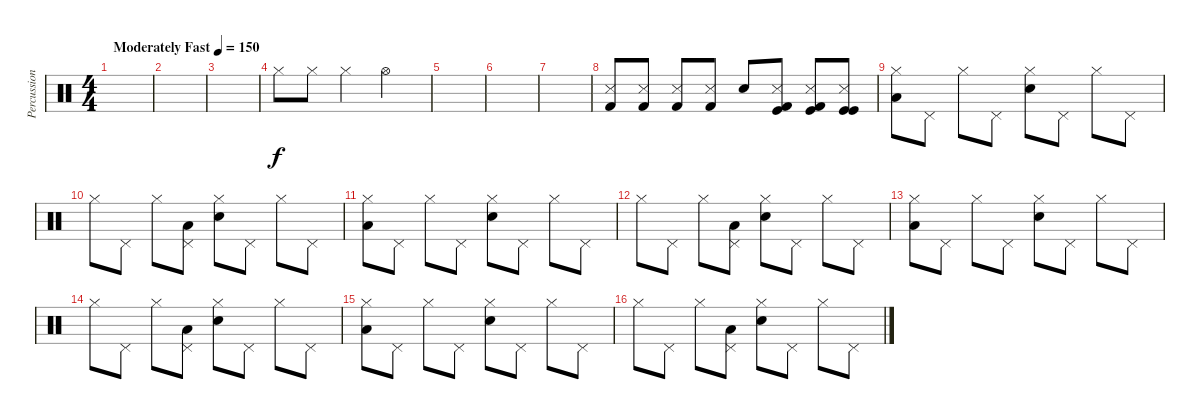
\track ("Percussion" "Percussion") {instrument percussion}
\staff {score}
\articulation defaults
\ts (4 4)
\tempo (150 "Moderately Fast")
\clef neutral
\ks c
|
|
|
"Hi-Hat (closed)".8 "Hi-Hat (closed)".8 "Hi-Hat (closed)".4 "Hi-Hat (open)".2 |
|
|
|
("Snare (side stick) 3" "Kick (hit) 2").8 ("Snare (side stick) 3" "Kick (hit) 2").8 ("Snare (side stick) 3" "Kick (hit) 2").8 ("Snare (side stick) 3" "Kick (hit) 2").8 "Electric Snare (hit)".8 ("Snare (side stick) 3" "Kick (hit) 2" "Kick (hit)").8 ("Snare (side stick) 3" "Kick (hit) 2" "Kick (hit)").8 ("Snare (side stick) 3" "Kick (hit)" "Kick (hit)").8 |
("Hi-Hat (closed)" "Low Floor Tom (hit)").8 "Pedal Hi-Hat (hit)".8 "Hi-Hat (closed)".8 "Pedal Hi-Hat (hit)".8 ("Hi-Hat (closed)" "Electric Snare (hit)").8 "Pedal Hi-Hat (hit)".8 "Hi-Hat (closed)".8 "Pedal Hi-Hat (hit)".8 |
"Hi-Hat (closed)".8 "Pedal Hi-Hat (hit)".8 "Hi-Hat (closed)".8 ("Pedal Hi-Hat (hit)" "Low Floor Tom (hit)").8 ("Hi-Hat (closed)" "Electric Snare (hit)").8 "Pedal Hi-Hat (hit)".8 "Hi-Hat (closed)".8 "Pedal Hi-Hat (hit)".8 |
("Hi-Hat (closed)" "Low Floor Tom (hit)").8 "Pedal Hi-Hat (hit)".8 "Hi-Hat (closed)".8 "Pedal Hi-Hat (hit)".8 ("Hi-Hat (closed)" "Electric Snare (hit)").8 "Pedal Hi-Hat (hit)".8 "Hi-Hat (closed)".8 "Pedal Hi-Hat (hit)".8 |
"Hi-Hat (closed)".8 "Pedal Hi-Hat (hit)".8 "Hi-Hat (closed)".8 ("Pedal Hi-Hat (hit)" "Low Floor Tom (hit)").8 ("Hi-Hat (closed)" "Electric Snare (hit)").8 "Pedal Hi-Hat (hit)".8 "Hi-Hat (closed)".8 "Pedal Hi-Hat (hit)".8 |
("Hi-Hat (closed)" "Low Floor Tom (hit)").8 "Pedal Hi-Hat (hit)".8 "Hi-Hat (closed)".8 "Pedal Hi-Hat (hit)".8 ("Hi-Hat (closed)" "Electric Snare (hit)").8 "Pedal Hi-Hat (hit)".8 "Hi-Hat (closed)".8 "Pedal Hi-Hat (hit)".8 |
"Hi-Hat (closed)".8 "Pedal Hi-Hat (hit)".8 "Hi-Hat (closed)".8 ("Pedal Hi-Hat (hit)" "Low Floor Tom (hit)").8 ("Hi-Hat (closed)" "Electric Snare (hit)").8 "Pedal Hi-Hat (hit)".8 "Hi-Hat (closed)".8 "Pedal Hi-Hat (hit)".8 |
("Hi-Hat (closed)" "Low Floor Tom (hit)").8 "Pedal Hi-Hat (hit)".8 "Hi-Hat (closed)".8 "Pedal Hi-Hat (hit)".8 ("Hi-Hat (closed)" "Electric Snare (hit)").8 "Pedal Hi-Hat (hit)".8 "Hi-Hat (closed)".8 "Pedal Hi-Hat (hit)".8 |
"Hi-Hat (closed)".8 "Pedal Hi-Hat (hit)".8 "Hi-Hat (closed)".8 ("Pedal Hi-Hat (hit)" "Low Floor Tom (hit)").8 ("Hi-Hat (closed)" "Electric Snare (hit)").8 "Pedal Hi-Hat (hit)".8 "Hi-Hat (closed)".8 "Pedal Hi-Hat (hit)".8
